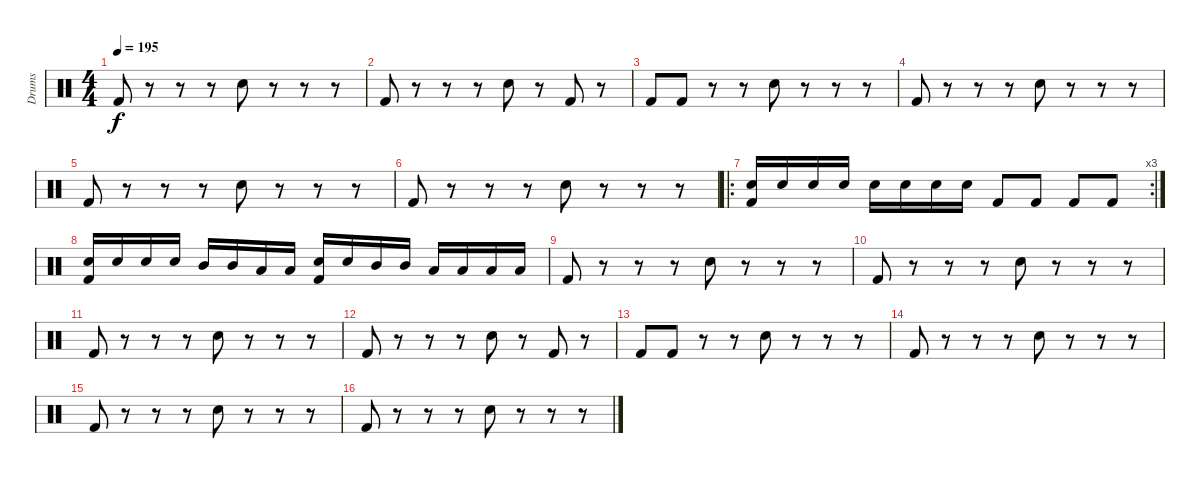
\track ("Drums" "Drums") {instrument percussion}
\staff {score}
\articulation defaults
\ts (4 4)
\tempo 195
\clef neutral
\ks c "Kick (hit) 2".8{dy f}
r.8 r.8 r.8 "Electric Snare (hit)".8 r.8 r.8 r.8 |
"Kick (hit) 2".8 r.8 r.8 r.8 "Electric Snare (hit)".8 r.8 "Kick (hit) 2".8 r.8 |
"Kick (hit) 2".8 "Kick (hit) 2".8 r.8 r.8 "Electric Snare (hit)".8 r.8 r.8 r.8 |
"Kick (hit) 2".8 r.8 r.8 r.8 "Electric Snare (hit)".8 r.8 r.8 r.8 |
"Kick (hit) 2".8 r.8 r.8 r.8 "Electric Snare (hit)".8 r.8 r.8 r.8 |
"Kick (hit) 2".8 r.8 r.8 r.8 "Electric Snare (hit)".8 r.8 r.8 r.8 |
\ro
\rc 3
("Electric Snare (hit)" "Kick (hit) 2").16 "Electric Snare (hit)".16 "Electric Snare (hit)".16 "Electric Snare (hit)".16 "Electric Snare (hit)".16 "Electric Snare (hit)".16 "Electric Snare (hit)".16 "Electric Snare (hit)".16 "Kick (hit) 2".8 "Kick (hit) 2".8 "Kick (hit) 2".8 "Kick (hit) 2".8 |
("Electric Snare (hit)" "Kick (hit) 2").16 "Electric Snare (hit)".16 "Electric Snare (hit)".16 "Electric Snare (hit)".16 "Mid Tom (hit)".16 "Mid Tom (hit)".16 "Low Tom (hit)".16 "Low Tom (hit)".16 ("Electric Snare (hit)" "Kick (hit) 2").16 "Electric Snare (hit)".16 "Mid Tom (hit)".16 "Mid Tom (hit)".16 "Low Tom (hit)".16 "Low Tom (hit)".16 "Low Tom (hit)".16 "Low Tom (hit)".16 |
"Kick (hit) 2".8 r.8 r.8 r.8 "Electric Snare (hit)".8 r.8 r.8 r.8 |
"Kick (hit) 2".8 r.8 r.8 r.8 "Electric Snare (hit)".8 r.8 r.8 r.8 |
"Kick (hit) 2".8 r.8 r.8 r.8 "Electric Snare (hit)".8 r.8 r.8 r.8 |
"Kick (hit) 2".8 r.8 r.8 r.8 "Electric Snare (hit)".8 r.8 "Kick (hit) 2".8 r.8 |
"Kick (hit) 2".8 "Kick (hit) 2".8 r.8 r.8 "Electric Snare (hit)".8 r.8 r.8 r.8 |
"Kick (hit) 2".8 r.8 r.8 r.8 "Electric Snare (hit)".8 r.8 r.8 r.8 |
"Kick (hit) 2".8 r.8 r.8 r.8 "Electric Snare (hit)".8 r.8 r.8 r.8 |
"Kick (hit) 2".8 r.8 r.8 r.8 "Electric Snare (hit)".8 r.8 r.8 r.8
